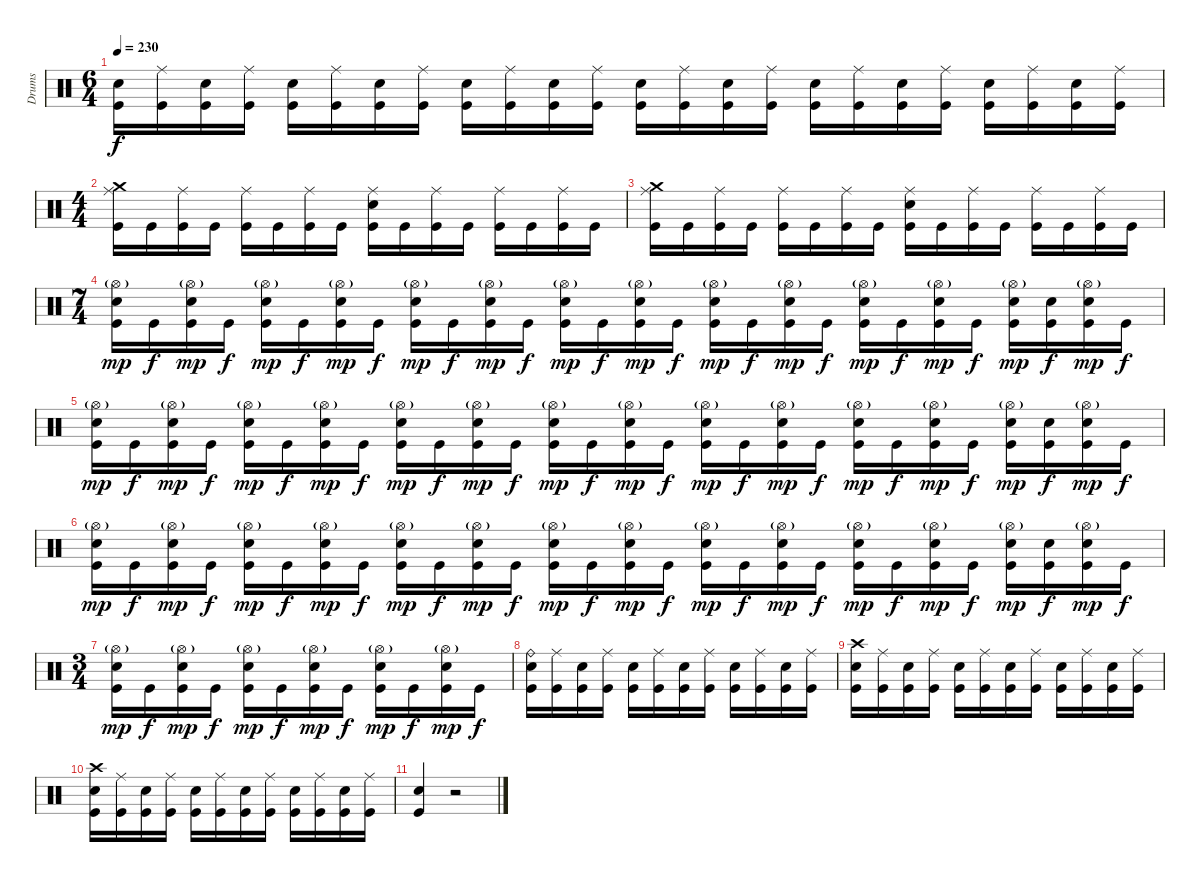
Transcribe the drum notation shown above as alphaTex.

\track ("Drums" "Drums") {instrument percussion}
\staff {score}
\articulation defaults
\ts (6 4)
\tempo 230
\clef neutral
\ks c
("Electric Snare (hit)" "Kick (hit)").16{dy f} ("Ride (middle)" "Kick (hit)").16 ("Electric Snare (hit)" "Kick (hit)").16 ("Ride (middle)" "Kick (hit)").16 ("Electric Snare (hit)" "Kick (hit)").16 ("Ride (middle)" "Kick (hit)").16 ("Electric Snare (hit)" "Kick (hit)").16 ("Ride (middle)" "Kick (hit)").16 ("Electric Snare (hit)" "Kick (hit)").16 ("Ride (middle)" "Kick (hit)").16 ("Electric Snare (hit)" "Kick (hit)").16 ("Ride (middle)" "Kick (hit)").16 ("Electric Snare (hit)" "Kick (hit)").16 ("Ride (middle)" "Kick (hit)").16 ("Electric Snare (hit)" "Kick (hit)").16 ("Ride (middle)" "Kick (hit)").16 ("Electric Snare (hit)" "Kick (hit)").16 ("Ride (middle)" "Kick (hit)").16 ("Electric Snare (hit)" "Kick (hit)").16 ("Ride (middle)" "Kick (hit)").16 ("Electric Snare (hit)" "Kick (hit)").16 ("Ride (middle)" "Kick (hit)").16 ("Electric Snare (hit)" "Kick (hit)").16 ("Ride (middle)" "Kick (hit)").16 |
\ts (4 4)
("Ride (middle)" "Crash medium (hit)" "Kick (hit)").16 "Kick (hit)".16 ("Ride (middle)" "Kick (hit)").16 "Kick (hit)".16 ("Ride (middle)" "Kick (hit)").16 "Kick (hit)".16 ("Ride (middle)" "Kick (hit)").16 "Kick (hit)".16 ("Ride (middle)" "Electric Snare (hit)" "Kick (hit)").16 "Kick (hit)".16 ("Ride (middle)" "Kick (hit)").16 "Kick (hit)".16 ("Ride (middle)" "Kick (hit)").16 "Kick (hit)".16 ("Ride (middle)" "Kick (hit)").16 "Kick (hit)".16 |
("Ride (middle)" "Crash medium (hit)" "Kick (hit)").16 "Kick (hit)".16 ("Ride (middle)" "Kick (hit)").16 "Kick (hit)".16 ("Ride (middle)" "Kick (hit)").16 "Kick (hit)".16 ("Ride (middle)" "Kick (hit)").16 "Kick (hit)".16 ("Ride (middle)" "Electric Snare (hit)" "Kick (hit)").16 "Kick (hit)".16 ("Ride (middle)" "Kick (hit)").16 "Kick (hit)".16 ("Ride (middle)" "Kick (hit)").16 "Kick (hit)".16 ("Ride (middle)" "Kick (hit)").16 "Kick (hit)".16 |
\ts (7 4)
("Hi-Hat (open)"{g} "Electric Snare (hit)" "Kick (hit)").16{dy mp} "Kick (hit)".16{dy f} ("Hi-Hat (open)"{g} "Electric Snare (hit)" "Kick (hit)").16{dy mp} "Kick (hit)".16{dy f} ("Hi-Hat (open)"{g} "Electric Snare (hit)" "Kick (hit)").16{dy mp} "Kick (hit)".16{dy f} ("Hi-Hat (open)"{g} "Electric Snare (hit)" "Kick (hit)").16{dy mp} "Kick (hit)".16{dy f} ("Hi-Hat (open)"{g} "Electric Snare (hit)" "Kick (hit)").16{dy mp} "Kick (hit)".16{dy f} ("Hi-Hat (open)"{g} "Electric Snare (hit)" "Kick (hit)").16{dy mp} "Kick (hit)".16{dy f} ("Hi-Hat (open)"{g} "Electric Snare (hit)" "Kick (hit)").16{dy mp} "Kick (hit)".16{dy f} ("Hi-Hat (open)"{g} "Electric Snare (hit)" "Kick (hit)").16{dy mp} "Kick (hit)".16{dy f} ("Hi-Hat (open)"{g} "Electric Snare (hit)" "Kick (hit)").16{dy mp} "Kick (hit)".16{dy f} ("Hi-Hat (open)"{g} "Electric Snare (hit)" "Kick (hit)").16{dy mp} "Kick (hit)".16{dy f} ("Hi-Hat (open)"{g} "Electric Snare (hit)" "Kick (hit)").16{dy mp} "Kick (hit)".16{dy f} ("Hi-Hat (open)"{g} "Electric Snare (hit)" "Kick (hit)").16{dy mp} "Kick (hit)".16{dy f} ("Hi-Hat (open)"{g} "Electric Snare (hit)" "Kick (hit)").16{dy mp} ("Electric Snare (hit)" "Kick (hit)").16{dy f} ("Hi-Hat (open)"{g} "Electric Snare (hit)" "Kick (hit)").16{dy mp} "Kick (hit)".16{dy f} |
("Hi-Hat (open)"{g} "Electric Snare (hit)" "Kick (hit)").16{dy mp} "Kick (hit)".16{dy f} ("Hi-Hat (open)"{g} "Electric Snare (hit)" "Kick (hit)").16{dy mp} "Kick (hit)".16{dy f} ("Hi-Hat (open)"{g} "Electric Snare (hit)" "Kick (hit)").16{dy mp} "Kick (hit)".16{dy f} ("Hi-Hat (open)"{g} "Electric Snare (hit)" "Kick (hit)").16{dy mp} "Kick (hit)".16{dy f} ("Hi-Hat (open)"{g} "Electric Snare (hit)" "Kick (hit)").16{dy mp} "Kick (hit)".16{dy f} ("Hi-Hat (open)"{g} "Electric Snare (hit)" "Kick (hit)").16{dy mp} "Kick (hit)".16{dy f} ("Hi-Hat (open)"{g} "Electric Snare (hit)" "Kick (hit)").16{dy mp} "Kick (hit)".16{dy f} ("Hi-Hat (open)"{g} "Electric Snare (hit)" "Kick (hit)").16{dy mp} "Kick (hit)".16{dy f} ("Hi-Hat (open)"{g} "Electric Snare (hit)" "Kick (hit)").16{dy mp} "Kick (hit)".16{dy f} ("Hi-Hat (open)"{g} "Electric Snare (hit)" "Kick (hit)").16{dy mp} "Kick (hit)".16{dy f} ("Hi-Hat (open)"{g} "Electric Snare (hit)" "Kick (hit)").16{dy mp} "Kick (hit)".16{dy f} ("Hi-Hat (open)"{g} "Electric Snare (hit)" "Kick (hit)").16{dy mp} "Kick (hit)".16{dy f} ("Hi-Hat (open)"{g} "Electric Snare (hit)" "Kick (hit)").16{dy mp} ("Electric Snare (hit)" "Kick (hit)").16{dy f} ("Hi-Hat (open)"{g} "Electric Snare (hit)" "Kick (hit)").16{dy mp} "Kick (hit)".16{dy f} |
("Hi-Hat (open)"{g} "Electric Snare (hit)" "Kick (hit)").16{dy mp} "Kick (hit)".16{dy f} ("Hi-Hat (open)"{g} "Electric Snare (hit)" "Kick (hit)").16{dy mp} "Kick (hit)".16{dy f} ("Hi-Hat (open)"{g} "Electric Snare (hit)" "Kick (hit)").16{dy mp} "Kick (hit)".16{dy f} ("Hi-Hat (open)"{g} "Electric Snare (hit)" "Kick (hit)").16{dy mp} "Kick (hit)".16{dy f} ("Hi-Hat (open)"{g} "Electric Snare (hit)" "Kick (hit)").16{dy mp} "Kick (hit)".16{dy f} ("Hi-Hat (open)"{g} "Electric Snare (hit)" "Kick (hit)").16{dy mp} "Kick (hit)".16{dy f} ("Hi-Hat (open)"{g} "Electric Snare (hit)" "Kick (hit)").16{dy mp} "Kick (hit)".16{dy f} ("Hi-Hat (open)"{g} "Electric Snare (hit)" "Kick (hit)").16{dy mp} "Kick (hit)".16{dy f} ("Hi-Hat (open)"{g} "Electric Snare (hit)" "Kick (hit)").16{dy mp} "Kick (hit)".16{dy f} ("Hi-Hat (open)"{g} "Electric Snare (hit)" "Kick (hit)").16{dy mp} "Kick (hit)".16{dy f} ("Hi-Hat (open)"{g} "Electric Snare (hit)" "Kick (hit)").16{dy mp} "Kick (hit)".16{dy f} ("Hi-Hat (open)"{g} "Electric Snare (hit)" "Kick (hit)").16{dy mp} "Kick (hit)".16{dy f} ("Hi-Hat (open)"{g} "Electric Snare (hit)" "Kick (hit)").16{dy mp} ("Electric Snare (hit)" "Kick (hit)").16{dy f} ("Hi-Hat (open)"{g} "Electric Snare (hit)" "Kick (hit)").16{dy mp} "Kick (hit)".16{dy f} |
\ts (3 4)
("Hi-Hat (open)"{g} "Electric Snare (hit)" "Kick (hit)").16{dy mp} "Kick (hit)".16{dy f} ("Hi-Hat (open)"{g} "Electric Snare (hit)" "Kick (hit)").16{dy mp} "Kick (hit)".16{dy f} ("Hi-Hat (open)"{g} "Electric Snare (hit)" "Kick (hit)").16{dy mp} "Kick (hit)".16{dy f} ("Hi-Hat (open)"{g} "Electric Snare (hit)" "Kick (hit)").16{dy mp} "Kick (hit)".16{dy f} ("Hi-Hat (open)"{g} "Electric Snare (hit)" "Kick (hit)").16{dy mp} "Kick (hit)".16{dy f} ("Hi-Hat (open)"{g} "Electric Snare (hit)" "Kick (hit)").16{dy mp} "Kick (hit)".16{dy f} |
("Ride (bell)" "Electric Snare (hit)" "Kick (hit)").16 ("Ride (middle)" "Kick (hit)").16 ("Electric Snare (hit)" "Kick (hit)").16 ("Ride (middle)" "Kick (hit)").16 ("Electric Snare (hit)" "Kick (hit)").16 ("Ride (middle)" "Kick (hit)").16 ("Electric Snare (hit)" "Kick (hit)").16 ("Ride (middle)" "Kick (hit)").16 ("Electric Snare (hit)" "Kick (hit)").16 ("Ride (middle)" "Kick (hit)").16 ("Electric Snare (hit)" "Kick (hit)").16 ("Ride (middle)" "Kick (hit)").16 |
("Crash high (hit)" "Electric Snare (hit)" "Kick (hit)").16 ("Ride (middle)" "Kick (hit)").16 ("Electric Snare (hit)" "Kick (hit)").16 ("Ride (middle)" "Kick (hit)").16 ("Electric Snare (hit)" "Kick (hit)").16 ("Ride (middle)" "Kick (hit)").16 ("Electric Snare (hit)" "Kick (hit)").16 ("Ride (middle)" "Kick (hit)").16 ("Electric Snare (hit)" "Kick (hit)").16 ("Ride (middle)" "Kick (hit)").16 ("Electric Snare (hit)" "Kick (hit)").16 ("Ride (middle)" "Kick (hit)").16 |
("Crash high (hit)" "Electric Snare (hit)" "Kick (hit)").16 ("Ride (middle)" "Kick (hit)").16 ("Electric Snare (hit)" "Kick (hit)").16 ("Ride (middle)" "Kick (hit)").16 ("Electric Snare (hit)" "Kick (hit)").16 ("Ride (middle)" "Kick (hit)").16 ("Electric Snare (hit)" "Kick (hit)").16 ("Ride (middle)" "Kick (hit)").16 ("Electric Snare (hit)" "Kick (hit)").16 ("Ride (middle)" "Kick (hit)").16 ("Electric Snare (hit)" "Kick (hit)").16 ("Ride (middle)" "Kick (hit)").16 |
("Electric Snare (hit)" "Kick (hit)").4 r.2
